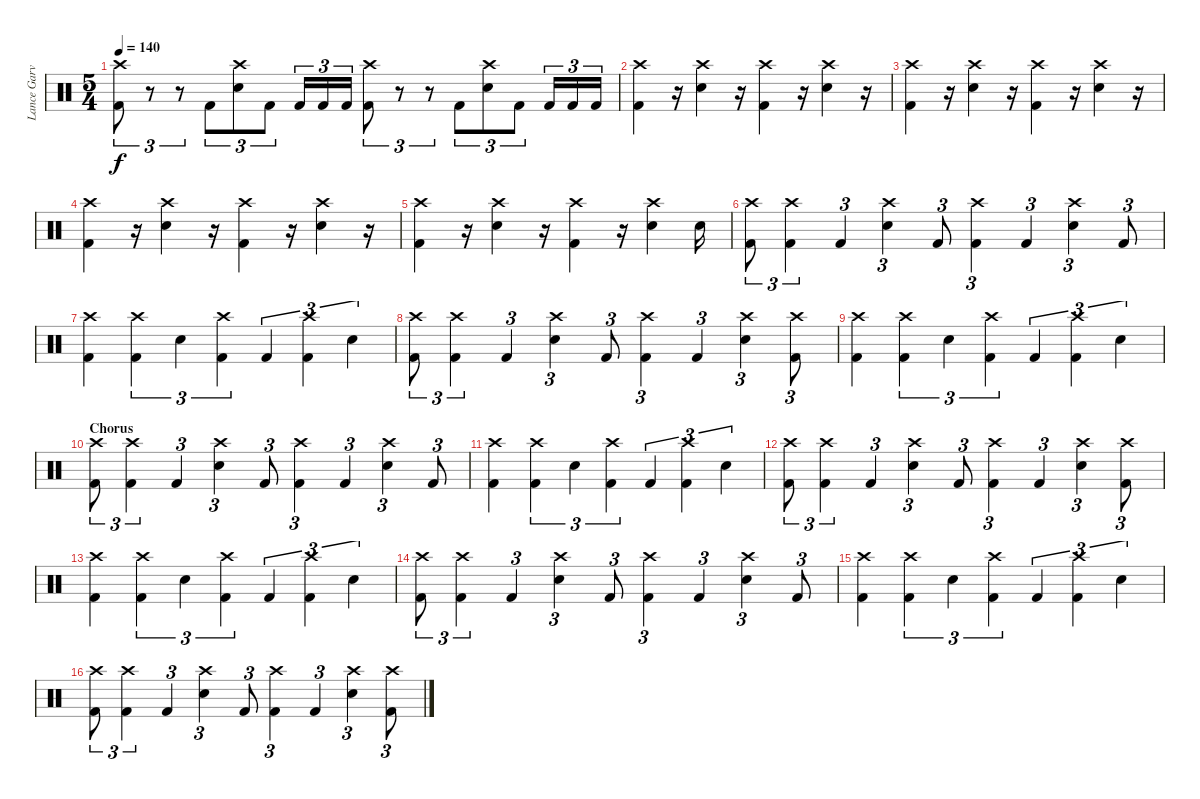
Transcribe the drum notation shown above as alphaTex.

\track ("Lance Garvin - Drums" "Lance Garv") {instrument percussion}
\staff {score}
\articulation defaults
\ts (5 4)
\tempo 140
\clef neutral
\ks c
("Crash high (hit)" "Kick (hit) 2").8{tu (3 2) dy f} r.8{tu (3 2)} r.8{tu (3 2)} "Kick (hit) 2".8{tu (3 2)} ("Crash high (hit)" "Electric Snare (hit)").8{tu (3 2)} "Kick (hit) 2".8{tu (3 2)} "Kick (hit) 2".16{tu (3 2)} "Kick (hit) 2".16{tu (3 2)} "Kick (hit) 2".16{tu (3 2)} ("Crash high (hit)" "Kick (hit) 2").8{tu (3 2)} r.8{tu (3 2)} r.8{tu (3 2)} "Kick (hit) 2".8{tu (3 2)} ("Crash high (hit)" "Electric Snare (hit)").8{tu (3 2)} "Kick (hit) 2".8{tu (3 2)} "Kick (hit) 2".16{tu (3 2)} "Kick (hit) 2".16{tu (3 2)} "Kick (hit) 2".16{tu (3 2)} |
("Crash high (hit)" "Kick (hit) 2").4 r.16 ("Crash high (hit)" "Electric Snare (hit)").4 r.16 ("Crash high (hit)" "Kick (hit) 2").4 r.16 ("Crash high (hit)" "Electric Snare (hit)").4 r.16 |
("Crash high (hit)" "Kick (hit) 2").4 r.16 ("Crash high (hit)" "Electric Snare (hit)").4 r.16 ("Crash high (hit)" "Kick (hit) 2").4 r.16 ("Crash high (hit)" "Electric Snare (hit)").4 r.16 |
("Crash high (hit)" "Kick (hit) 2").4 r.16 ("Crash high (hit)" "Electric Snare (hit)").4 r.16 ("Crash high (hit)" "Kick (hit) 2").4 r.16 ("Crash high (hit)" "Electric Snare (hit)").4 r.16 |
("Crash high (hit)" "Kick (hit) 2").4 r.16 ("Crash high (hit)" "Electric Snare (hit)").4 r.16 ("Crash high (hit)" "Kick (hit) 2").4 r.16 ("Crash high (hit)" "Electric Snare (hit)").4 "Electric Snare (hit)".16 |
("Crash high (hit)" "Kick (hit) 2").8{tu (3 2)} ("Crash high (hit)" "Kick (hit) 2").4{tu (3 2)} "Kick (hit) 2".4{tu (3 2)} ("Crash high (hit)" "Electric Snare (hit)").4{tu (3 2)} "Kick (hit) 2".8{tu (3 2)} ("Crash high (hit)" "Kick (hit) 2").4{tu (3 2)} "Kick (hit) 2".4{tu (3 2)} ("Crash high (hit)" "Electric Snare (hit)").4{tu (3 2)} "Kick (hit) 2".8{tu (3 2)} |
("Crash high (hit)" "Kick (hit) 2").4 ("Crash high (hit)" "Kick (hit) 2").4{tu (3 2)} "Electric Snare (hit)".4{tu (3 2)} ("Crash high (hit)" "Kick (hit) 2").4{tu (3 2)} "Kick (hit) 2".4{tu (3 2)} ("Crash high (hit)" "Kick (hit) 2").4{tu (3 2)} "Electric Snare (hit)".4{tu (3 2)} |
("Crash high (hit)" "Kick (hit) 2").8{tu (3 2)} ("Crash high (hit)" "Kick (hit) 2").4{tu (3 2)} "Kick (hit) 2".4{tu (3 2)} ("Crash high (hit)" "Electric Snare (hit)").4{tu (3 2)} "Kick (hit) 2".8{tu (3 2)} ("Crash high (hit)" "Kick (hit) 2").4{tu (3 2)} "Kick (hit) 2".4{tu (3 2)} ("Crash high (hit)" "Electric Snare (hit)").4{tu (3 2)} ("Crash high (hit)" "Kick (hit) 2").8{tu (3 2)} |
("Crash high (hit)" "Kick (hit) 2").4 ("Crash high (hit)" "Kick (hit) 2").4{tu (3 2)} "Electric Snare (hit)".4{tu (3 2)} ("Crash high (hit)" "Kick (hit) 2").4{tu (3 2)} "Kick (hit) 2".4{tu (3 2)} ("Crash high (hit)" "Kick (hit) 2").4{tu (3 2)} "Electric Snare (hit)".4{tu (3 2)} |
\section ("" "Chorus")
("Crash high (hit)" "Kick (hit) 2").8{tu (3 2)} ("Crash high (hit)" "Kick (hit) 2").4{tu (3 2)} "Kick (hit) 2".4{tu (3 2)} ("Crash high (hit)" "Electric Snare (hit)").4{tu (3 2)} "Kick (hit) 2".8{tu (3 2)} ("Crash high (hit)" "Kick (hit) 2").4{tu (3 2)} "Kick (hit) 2".4{tu (3 2)} ("Crash high (hit)" "Electric Snare (hit)").4{tu (3 2)} "Kick (hit) 2".8{tu (3 2)} |
("Crash high (hit)" "Kick (hit) 2").4 ("Crash high (hit)" "Kick (hit) 2").4{tu (3 2)} "Electric Snare (hit)".4{tu (3 2)} ("Crash high (hit)" "Kick (hit) 2").4{tu (3 2)} "Kick (hit) 2".4{tu (3 2)} ("Crash high (hit)" "Kick (hit) 2").4{tu (3 2)} "Electric Snare (hit)".4{tu (3 2)} |
("Crash high (hit)" "Kick (hit) 2").8{tu (3 2)} ("Crash high (hit)" "Kick (hit) 2").4{tu (3 2)} "Kick (hit) 2".4{tu (3 2)} ("Crash high (hit)" "Electric Snare (hit)").4{tu (3 2)} "Kick (hit) 2".8{tu (3 2)} ("Crash high (hit)" "Kick (hit) 2").4{tu (3 2)} "Kick (hit) 2".4{tu (3 2)} ("Crash high (hit)" "Electric Snare (hit)").4{tu (3 2)} ("Crash high (hit)" "Kick (hit) 2").8{tu (3 2)} |
("Crash high (hit)" "Kick (hit) 2").4 ("Crash high (hit)" "Kick (hit) 2").4{tu (3 2)} "Electric Snare (hit)".4{tu (3 2)} ("Crash high (hit)" "Kick (hit) 2").4{tu (3 2)} "Kick (hit) 2".4{tu (3 2)} ("Crash high (hit)" "Kick (hit) 2").4{tu (3 2)} "Electric Snare (hit)".4{tu (3 2)} |
("Crash high (hit)" "Kick (hit) 2").8{tu (3 2)} ("Crash high (hit)" "Kick (hit) 2").4{tu (3 2)} "Kick (hit) 2".4{tu (3 2)} ("Crash high (hit)" "Electric Snare (hit)").4{tu (3 2)} "Kick (hit) 2".8{tu (3 2)} ("Crash high (hit)" "Kick (hit) 2").4{tu (3 2)} "Kick (hit) 2".4{tu (3 2)} ("Crash high (hit)" "Electric Snare (hit)").4{tu (3 2)} "Kick (hit) 2".8{tu (3 2)} |
("Crash high (hit)" "Kick (hit) 2").4 ("Crash high (hit)" "Kick (hit) 2").4{tu (3 2)} "Electric Snare (hit)".4{tu (3 2)} ("Crash high (hit)" "Kick (hit) 2").4{tu (3 2)} "Kick (hit) 2".4{tu (3 2)} ("Crash high (hit)" "Kick (hit) 2").4{tu (3 2)} "Electric Snare (hit)".4{tu (3 2)} |
("Crash high (hit)" "Kick (hit) 2").8{tu (3 2)} ("Crash high (hit)" "Kick (hit) 2").4{tu (3 2)} "Kick (hit) 2".4{tu (3 2)} ("Crash high (hit)" "Electric Snare (hit)").4{tu (3 2)} "Kick (hit) 2".8{tu (3 2)} ("Crash high (hit)" "Kick (hit) 2").4{tu (3 2)} "Kick (hit) 2".4{tu (3 2)} ("Crash high (hit)" "Electric Snare (hit)").4{tu (3 2)} ("Crash high (hit)" "Kick (hit) 2").8{tu (3 2)}
